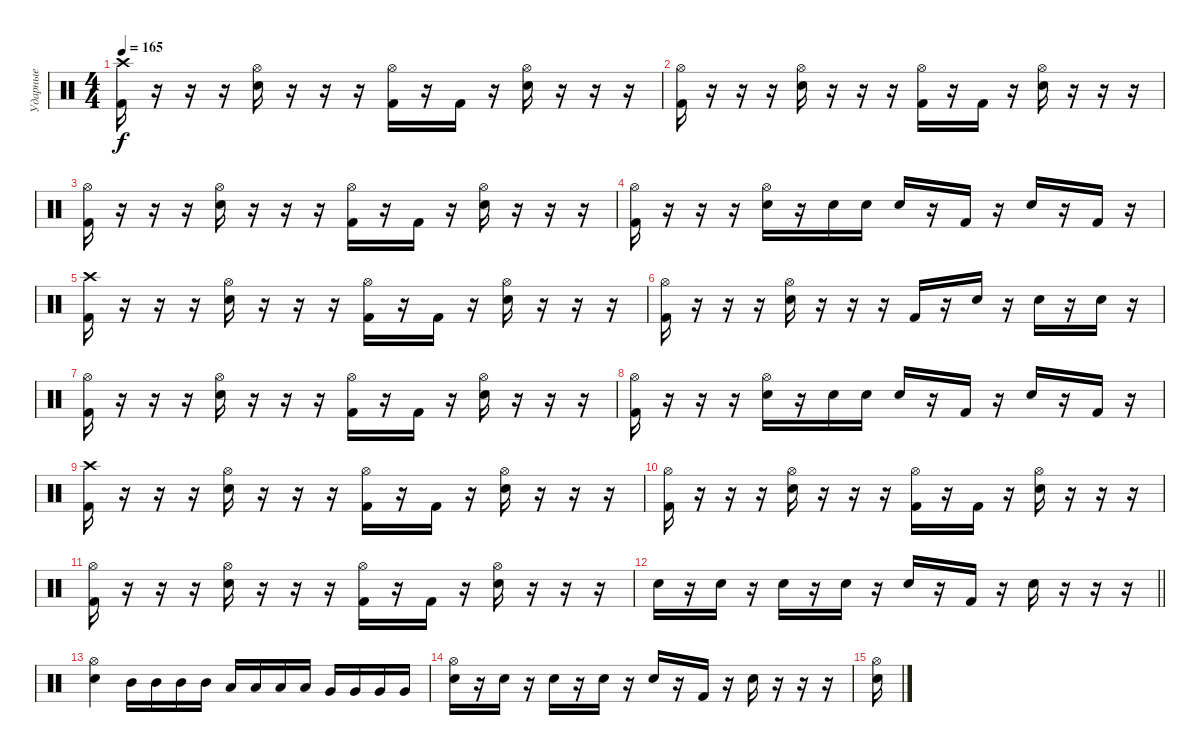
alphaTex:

\track ("Ударные" "Ударные") {instrument percussion}
\staff {score}
\articulation defaults
\ts (4 4)
\tempo 165
\clef neutral
\ks c
("Kick (hit) 2" "Crash high (hit)").16{dy f} r.16 r.16 r.16 ("Electric Snare (hit)" "Hi-Hat (open)").16 r.16 r.16 r.16 ("Kick (hit) 2" "Hi-Hat (open)").16 r.16 "Kick (hit) 2".16 r.16 ("Electric Snare (hit)" "Hi-Hat (open)").16 r.16 r.16 r.16 |
("Kick (hit) 2" "Hi-Hat (open)").16 r.16 r.16 r.16 ("Electric Snare (hit)" "Hi-Hat (open)").16 r.16 r.16 r.16 ("Kick (hit) 2" "Hi-Hat (open)").16 r.16 "Kick (hit) 2".16 r.16 ("Electric Snare (hit)" "Hi-Hat (open)").16 r.16 r.16 r.16 |
("Kick (hit) 2" "Hi-Hat (open)").16 r.16 r.16 r.16 ("Electric Snare (hit)" "Hi-Hat (open)").16 r.16 r.16 r.16 ("Kick (hit) 2" "Hi-Hat (open)").16 r.16 "Kick (hit) 2".16 r.16 ("Electric Snare (hit)" "Hi-Hat (open)").16 r.16 r.16 r.16 |
("Kick (hit) 2" "Hi-Hat (open)").16 r.16 r.16 r.16 ("Electric Snare (hit)" "Hi-Hat (open)").16 r.16 "Electric Snare (hit)".16 "Electric Snare (hit)".16 "Electric Snare (hit)".16 r.16 "Kick (hit) 2".16 r.16 "Electric Snare (hit)".16 r.16 "Kick (hit) 2".16 r.16 |
("Kick (hit) 2" "Crash high (hit)").16 r.16 r.16 r.16 ("Electric Snare (hit)" "Hi-Hat (open)").16 r.16 r.16 r.16 ("Kick (hit) 2" "Hi-Hat (open)").16 r.16 "Kick (hit) 2".16 r.16 ("Electric Snare (hit)" "Hi-Hat (open)").16 r.16 r.16 r.16 |
("Kick (hit) 2" "Hi-Hat (open)").16 r.16 r.16 r.16 ("Electric Snare (hit)" "Hi-Hat (open)").16 r.16 r.16 r.16 "Kick (hit) 2".16 r.16 "Electric Snare (hit)".16 r.16 "Electric Snare (hit)".16 r.16 "Electric Snare (hit)".16 r.16 |
("Kick (hit) 2" "Hi-Hat (open)").16 r.16 r.16 r.16 ("Electric Snare (hit)" "Hi-Hat (open)").16 r.16 r.16 r.16 ("Kick (hit) 2" "Hi-Hat (open)").16 r.16 "Kick (hit) 2".16 r.16 ("Electric Snare (hit)" "Hi-Hat (open)").16 r.16 r.16 r.16 |
("Kick (hit) 2" "Hi-Hat (open)").16 r.16 r.16 r.16 ("Electric Snare (hit)" "Hi-Hat (open)").16 r.16 "Electric Snare (hit)".16 "Electric Snare (hit)".16 "Electric Snare (hit)".16 r.16 "Kick (hit) 2".16 r.16 "Electric Snare (hit)".16 r.16 "Kick (hit) 2".16 r.16 |
("Kick (hit) 2" "Crash high (hit)").16 r.16 r.16 r.16 ("Electric Snare (hit)" "Hi-Hat (open)").16 r.16 r.16 r.16 ("Kick (hit) 2" "Hi-Hat (open)").16 r.16 "Kick (hit) 2".16 r.16 ("Electric Snare (hit)" "Hi-Hat (open)").16 r.16 r.16 r.16 |
("Kick (hit) 2" "Hi-Hat (open)").16 r.16 r.16 r.16 ("Electric Snare (hit)" "Hi-Hat (open)").16 r.16 r.16 r.16 ("Kick (hit) 2" "Hi-Hat (open)").16 r.16 "Kick (hit) 2".16 r.16 ("Electric Snare (hit)" "Hi-Hat (open)").16 r.16 r.16 r.16 |
("Kick (hit) 2" "Hi-Hat (open)").16 r.16 r.16 r.16 ("Electric Snare (hit)" "Hi-Hat (open)").16 r.16 r.16 r.16 ("Kick (hit) 2" "Hi-Hat (open)").16 r.16 "Kick (hit) 2".16 r.16 ("Electric Snare (hit)" "Hi-Hat (open)").16 r.16 r.16 r.16 |
\barLineRight lightlight "Electric Snare (hit)".16
r.16 "Electric Snare (hit)".16 r.16 "Electric Snare (hit)".16 r.16 "Electric Snare (hit)".16 r.16 "Electric Snare (hit)".16 r.16 "Kick (hit) 2".16 r.16 "Electric Snare (hit)".16 r.16 r.16 r.16 |
("Electric Snare (hit)" "Hi-Hat (open)").4 "Mid Tom (hit)".16 "Mid Tom (hit)".16 "Mid Tom (hit)".16 "Mid Tom (hit)".16 "Low Tom (hit)".16 "Low Tom (hit)".16 "Low Tom (hit)".16 "Low Tom (hit)".16 "Very Low Tom (hit)".16 "Very Low Tom (hit)".16 "Very Low Tom (hit)".16 "Very Low Tom (hit)".16 |
("Electric Snare (hit)" "Hi-Hat (open)").16 r.16 "Electric Snare (hit)".16 r.16 "Electric Snare (hit)".16 r.16 "Electric Snare (hit)".16 r.16 "Electric Snare (hit)".16 r.16 "Kick (hit) 2".16 r.16 "Electric Snare (hit)".16 r.16 r.16 r.16 |
("Electric Snare (hit)" "Hi-Hat (open)").16
